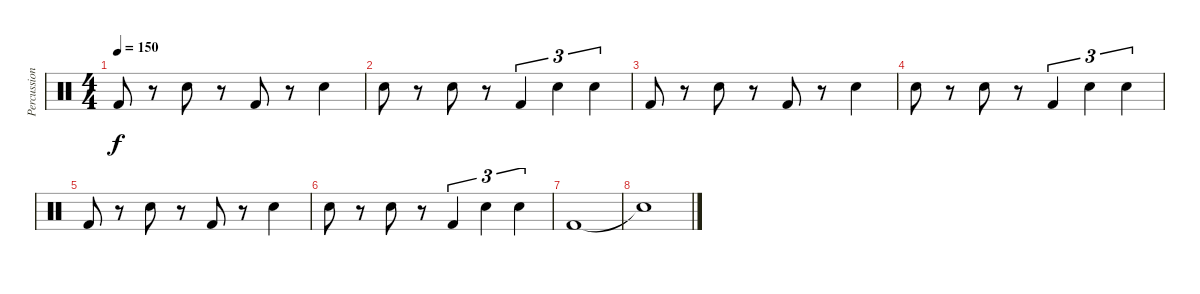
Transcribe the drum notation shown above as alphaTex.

\track ("Percussion" "Percussion") {instrument percussion}
\staff {score}
\articulation defaults
\ts (4 4)
\tempo 150
\clef neutral
\ks c "Kick (hit) 2".8{dy f}
r.8 "Snare (hit) 2".8 r.8 "Kick (hit) 2".8 r.8 "Snare (hit) 2".4 |
"Snare (hit) 2".8 r.8 "Snare (hit) 2".8 r.8 "Kick (hit) 2".4{tu (3 2)} "Snare (hit) 2".4{tu (3 2)} "Snare (hit) 2".4{tu (3 2)} |
"Kick (hit) 2".8 r.8 "Snare (hit) 2".8 r.8 "Kick (hit) 2".8 r.8 "Snare (hit) 2".4 |
"Snare (hit) 2".8 r.8 "Snare (hit) 2".8 r.8 "Kick (hit) 2".4{tu (3 2)} "Snare (hit) 2".4{tu (3 2)} "Snare (hit) 2".4{tu (3 2)} |
"Kick (hit) 2".8 r.8 "Snare (hit) 2".8 r.8 "Kick (hit) 2".8 r.8 "Snare (hit) 2".4 |
"Snare (hit) 2".8 r.8 "Snare (hit) 2".8 r.8 "Kick (hit) 2".4{tu (3 2)} "Snare (hit) 2".4{tu (3 2)} "Snare (hit) 2".4{tu (3 2)} |
"Kick (hit) 2".1 |
"Snare (hit)"{t}.1
